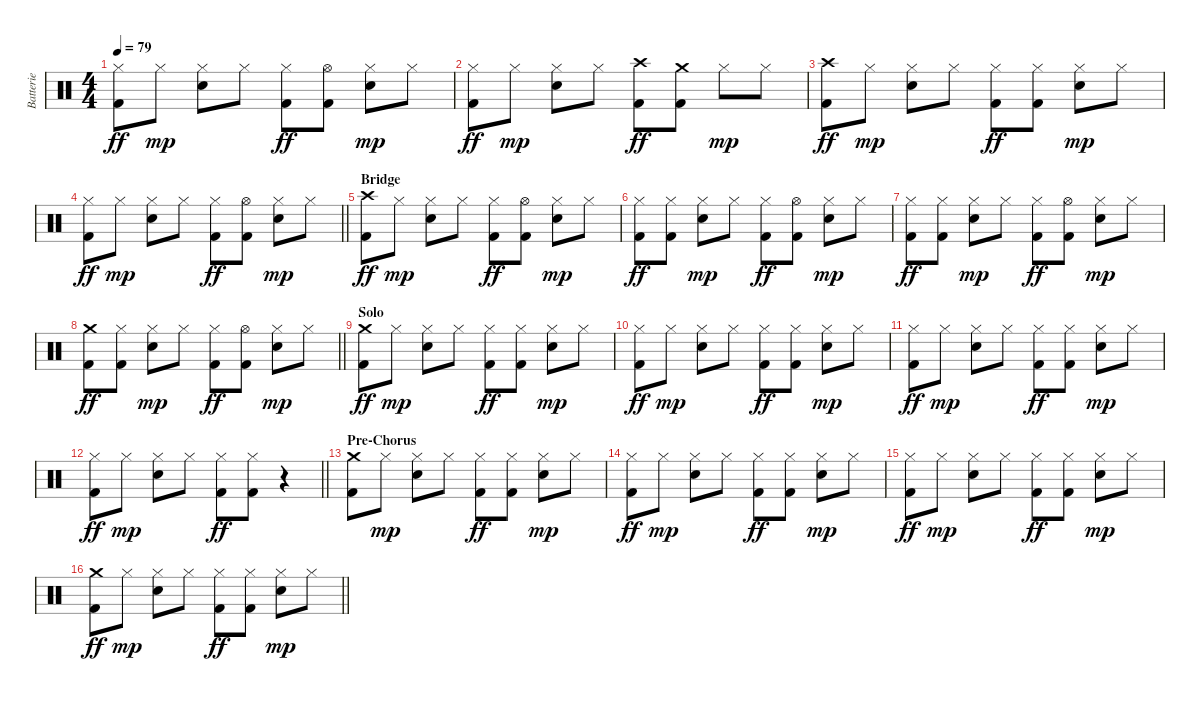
\track ("Batterie" "Batterie") {instrument percussion}
\staff {score}
\articulation defaults
\ts (4 4)
\tempo 79
\clef neutral
\ks c
("Hi-Hat (closed)" "Kick (hit) 2").8{dy ff} "Hi-Hat (closed)".8{dy mp} ("Hi-Hat (closed)" "Electric Snare (hit)").8 "Hi-Hat (closed)".8 ("Hi-Hat (closed)" "Kick (hit) 2").8{dy ff} ("Hi-Hat (open)" "Kick (hit) 2").8 ("Hi-Hat (closed)" "Electric Snare (hit)").8{dy mp} "Hi-Hat (closed)".8 |
("Hi-Hat (closed)" "Kick (hit) 2").8{dy ff} "Hi-Hat (closed)".8{dy mp} ("Hi-Hat (closed)" "Electric Snare (hit)").8 "Hi-Hat (closed)".8 ("Crash high (hit)" "Kick (hit) 2").8{dy ff} ("Crash medium (hit)" "Kick (hit) 2").8 "Hi-Hat (closed)".8{dy mp} "Hi-Hat (closed)".8 |
("Crash high (hit)" "Kick (hit) 2").8{dy ff} "Hi-Hat (closed)".8{dy mp} ("Hi-Hat (closed)" "Electric Snare (hit)").8 "Hi-Hat (closed)".8 ("Hi-Hat (closed)" "Kick (hit) 2").8{dy ff} ("Hi-Hat (closed)" "Kick (hit) 2").8 ("Hi-Hat (closed)" "Electric Snare (hit)").8{dy mp} "Hi-Hat (closed)".8 |
\barLineRight lightlight
("Hi-Hat (closed)" "Kick (hit) 2").8{dy ff} "Hi-Hat (closed)".8{dy mp} ("Hi-Hat (closed)" "Electric Snare (hit)").8 "Hi-Hat (closed)".8 ("Hi-Hat (closed)" "Kick (hit) 2").8{dy ff} ("Hi-Hat (open)" "Kick (hit) 2").8 ("Hi-Hat (closed)" "Electric Snare (hit)").8{dy mp} "Hi-Hat (closed)".8 |
\section ("" "Bridge")
("Crash high (hit)" "Kick (hit) 2").8{dy ff} "Hi-Hat (closed)".8{dy mp} ("Hi-Hat (closed)" "Electric Snare (hit)").8 "Hi-Hat (closed)".8 ("Hi-Hat (closed)" "Kick (hit) 2").8{dy ff} ("Hi-Hat (open)" "Kick (hit) 2").8 ("Hi-Hat (closed)" "Electric Snare (hit)").8{dy mp} "Hi-Hat (closed)".8 |
("Hi-Hat (closed)" "Kick (hit) 2").8{dy ff} ("Hi-Hat (closed)" "Kick (hit) 2").8 ("Hi-Hat (closed)" "Electric Snare (hit)").8{dy mp} "Hi-Hat (closed)".8 ("Hi-Hat (closed)" "Kick (hit) 2").8{dy ff} ("Hi-Hat (open)" "Kick (hit) 2").8 ("Hi-Hat (closed)" "Electric Snare (hit)").8{dy mp} "Hi-Hat (closed)".8 |
("Hi-Hat (closed)" "Kick (hit) 2").8{dy ff} ("Hi-Hat (closed)" "Kick (hit) 2").8 ("Hi-Hat (closed)" "Electric Snare (hit)").8{dy mp} "Hi-Hat (closed)".8 ("Hi-Hat (closed)" "Kick (hit) 2").8{dy ff} ("Hi-Hat (open)" "Kick (hit) 2").8 ("Hi-Hat (closed)" "Electric Snare (hit)").8{dy mp} "Hi-Hat (closed)".8 |
\barLineRight lightlight
("Crash medium (hit)" "Kick (hit) 2").8{dy ff} ("Hi-Hat (closed)" "Kick (hit) 2").8 ("Hi-Hat (closed)" "Electric Snare (hit)").8{dy mp} "Hi-Hat (closed)".8 ("Hi-Hat (closed)" "Kick (hit) 2").8{dy ff} ("Hi-Hat (open)" "Kick (hit) 2").8 ("Hi-Hat (closed)" "Electric Snare (hit)").8{dy mp} "Hi-Hat (closed)".8 |
\section ("" "Solo")
("Crash medium (hit)" "Kick (hit) 2").8{dy ff} "Hi-Hat (closed)".8{dy mp} ("Hi-Hat (closed)" "Electric Snare (hit)").8 "Hi-Hat (closed)".8 ("Hi-Hat (closed)" "Kick (hit) 2").8{dy ff} ("Hi-Hat (closed)" "Kick (hit) 2").8 ("Hi-Hat (closed)" "Electric Snare (hit)").8{dy mp} "Hi-Hat (closed)".8 |
("Hi-Hat (closed)" "Kick (hit) 2").8{dy ff} "Hi-Hat (closed)".8{dy mp} ("Hi-Hat (closed)" "Electric Snare (hit)").8 "Hi-Hat (closed)".8 ("Hi-Hat (closed)" "Kick (hit) 2").8{dy ff} ("Hi-Hat (closed)" "Kick (hit) 2").8 ("Hi-Hat (closed)" "Electric Snare (hit)").8{dy mp} "Hi-Hat (closed)".8 |
("Hi-Hat (closed)" "Kick (hit) 2").8{dy ff} "Hi-Hat (closed)".8{dy mp} ("Hi-Hat (closed)" "Electric Snare (hit)").8 "Hi-Hat (closed)".8 ("Hi-Hat (closed)" "Kick (hit) 2").8{dy ff} ("Hi-Hat (closed)" "Kick (hit) 2").8 ("Hi-Hat (closed)" "Electric Snare (hit)").8{dy mp} "Hi-Hat (closed)".8 |
\barLineRight lightlight
("Hi-Hat (closed)" "Kick (hit) 2").8{dy ff} "Hi-Hat (closed)".8{dy mp} ("Hi-Hat (closed)" "Electric Snare (hit)").8 "Hi-Hat (closed)".8 ("Hi-Hat (closed)" "Kick (hit) 2").8{dy ff} ("Hi-Hat (closed)" "Kick (hit) 2").8 r.4 |
\section ("" "Pre-Chorus")
("Crash medium (hit)" "Kick (hit) 2").8 "Hi-Hat (closed)".8{dy mp} ("Hi-Hat (closed)" "Electric Snare (hit)").8 "Hi-Hat (closed)".8 ("Hi-Hat (closed)" "Kick (hit) 2").8{dy ff} ("Hi-Hat (closed)" "Kick (hit) 2").8 ("Hi-Hat (closed)" "Electric Snare (hit)").8{dy mp} "Hi-Hat (closed)".8 |
("Hi-Hat (closed)" "Kick (hit) 2").8{dy ff} "Hi-Hat (closed)".8{dy mp} ("Hi-Hat (closed)" "Electric Snare (hit)").8 "Hi-Hat (closed)".8 ("Hi-Hat (closed)" "Kick (hit) 2").8{dy ff} ("Hi-Hat (closed)" "Kick (hit) 2").8 ("Hi-Hat (closed)" "Electric Snare (hit)").8{dy mp} "Hi-Hat (closed)".8 |
("Hi-Hat (closed)" "Kick (hit) 2").8{dy ff} "Hi-Hat (closed)".8{dy mp} ("Hi-Hat (closed)" "Electric Snare (hit)").8 "Hi-Hat (closed)".8 ("Hi-Hat (closed)" "Kick (hit) 2").8{dy ff} ("Hi-Hat (closed)" "Kick (hit) 2").8 ("Hi-Hat (closed)" "Electric Snare (hit)").8{dy mp} "Hi-Hat (closed)".8 |
\barLineRight lightlight
("Crash medium (hit)" "Kick (hit) 2").8{dy ff} "Hi-Hat (closed)".8{dy mp} ("Hi-Hat (closed)" "Electric Snare (hit)").8 "Hi-Hat (closed)".8 ("Hi-Hat (closed)" "Kick (hit) 2").8{dy ff} ("Hi-Hat (closed)" "Kick (hit) 2").8 ("Hi-Hat (closed)" "Electric Snare (hit)").8{dy mp} "Hi-Hat (closed)".8
